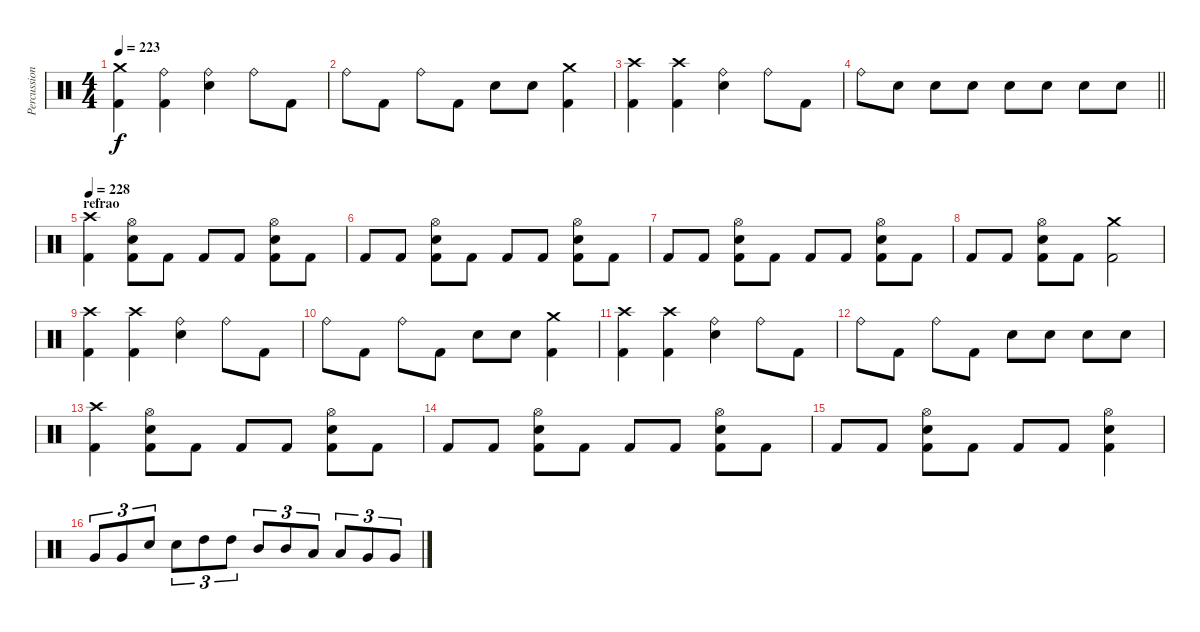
\track ("Percussion" "Percussion") {instrument percussion}
\staff {score}
\articulation defaults
\ts (4 4)
\tempo 223
\clef neutral
\ks c
("Crash medium (hit)" "Kick (hit) 2").4{dy f} ("Ride (bell)" "Kick (hit) 2").4 ("Ride (bell)" "Snare (hit) 2").4 "Ride (bell)".8 "Kick (hit) 2".8 |
"Ride (bell)".8 "Kick (hit) 2".8 "Ride (bell)".8 "Kick (hit) 2".8 "Snare (hit) 2".8 "Snare (hit) 2".8 ("Crash medium (hit)" "Kick (hit) 2").4 |
("Crash high (hit)" "Kick (hit) 2").4 ("Crash high (hit)" "Kick (hit) 2").4 ("Ride (bell)" "Snare (hit) 2").4 "Ride (bell)".8 "Kick (hit) 2".8 |
\barLineRight lightlight "Ride (bell)".8 "Snare (hit) 2".8 "Snare (hit) 2".8 "Snare (hit) 2".8 "Snare (hit) 2".8 "Snare (hit) 2".8 "Snare (hit) 2".8 "Snare (hit) 2".8
|
\section ("" "refrao")
\tempo 228
("Crash high (hit)" "Kick (hit) 2").4 ("Hi-Hat (open)" "Snare (hit) 2" "Kick (hit) 2").8 "Kick (hit) 2".8 "Kick (hit) 2".8 "Kick (hit) 2".8 ("Hi-Hat (open)" "Snare (hit) 2" "Kick (hit) 2").8 "Kick (hit) 2".8 |
"Kick (hit) 2".8 "Kick (hit) 2".8 ("Hi-Hat (open)" "Snare (hit) 2" "Kick (hit) 2").8 "Kick (hit) 2".8 "Kick (hit) 2".8 "Kick (hit) 2".8 ("Hi-Hat (open)" "Snare (hit) 2" "Kick (hit) 2").8 "Kick (hit) 2".8 |
"Kick (hit) 2".8 "Kick (hit) 2".8 ("Hi-Hat (open)" "Snare (hit) 2" "Kick (hit) 2").8 "Kick (hit) 2".8 "Kick (hit) 2".8 "Kick (hit) 2".8 ("Hi-Hat (open)" "Snare (hit) 2" "Kick (hit) 2").8 "Kick (hit) 2".8 |
"Kick (hit) 2".8 "Kick (hit) 2".8 ("Hi-Hat (open)" "Snare (hit) 2" "Kick (hit) 2").8 "Kick (hit) 2".8 ("Crash medium (hit)" "Kick (hit) 2").2 |
("Crash high (hit)" "Kick (hit) 2").4 ("Crash high (hit)" "Kick (hit) 2").4 ("Ride (bell)" "Snare (hit) 2").4 "Ride (bell)".8 "Kick (hit) 2".8 |
"Ride (bell)".8 "Kick (hit) 2".8 "Ride (bell)".8 "Kick (hit) 2".8 "Snare (hit) 2".8 "Snare (hit) 2".8 ("Crash medium (hit)" "Kick (hit) 2").4 |
("Crash high (hit)" "Kick (hit) 2").4 ("Crash high (hit)" "Kick (hit) 2").4 ("Ride (bell)" "Snare (hit) 2").4 "Ride (bell)".8 "Kick (hit) 2".8 |
"Ride (bell)".8 "Kick (hit) 2".8 "Ride (bell)".8 "Kick (hit) 2".8 "Snare (hit) 2".8 "Snare (hit) 2".8 "Snare (hit) 2".8 "Snare (hit) 2".8 |
("Crash high (hit)" "Kick (hit) 2").4 ("Hi-Hat (open)" "Snare (hit) 2" "Kick (hit) 2").8 "Kick (hit) 2".8 "Kick (hit) 2".8 "Kick (hit) 2".8 ("Hi-Hat (open)" "Snare (hit) 2" "Kick (hit) 2").8 "Kick (hit) 2".8 |
"Kick (hit) 2".8 "Kick (hit) 2".8 ("Hi-Hat (open)" "Snare (hit) 2" "Kick (hit) 2").8 "Kick (hit) 2".8 "Kick (hit) 2".8 "Kick (hit) 2".8 ("Hi-Hat (open)" "Snare (hit) 2" "Kick (hit) 2").8 "Kick (hit) 2".8 |
"Kick (hit) 2".8 "Kick (hit) 2".8 ("Hi-Hat (open)" "Snare (hit) 2" "Kick (hit) 2").8 "Kick (hit) 2".8 "Kick (hit) 2".8 "Kick (hit) 2".8 ("Hi-Hat (open)" "Snare (hit) 2" "Kick (hit) 2").4 |
"Very Low Tom (hit)".8{tu (3 2)} "Very Low Tom (hit)".8{tu (3 2)} "Snare (hit) 2".8{tu (3 2)} "Snare (hit) 2".8{tu (3 2)} "High Tom (hit)".8{tu (3 2)} "High Tom (hit)".8{tu (3 2)} "Mid Tom (hit)".8{tu (3 2)} "Mid Tom (hit)".8{tu (3 2)} "Low Tom (hit)".8{tu (3 2)} "Low Tom (hit)".8{tu (3 2)} "Very Low Tom (hit)".8{tu (3 2)} "Very Low Tom (hit)".8{tu (3 2)}
